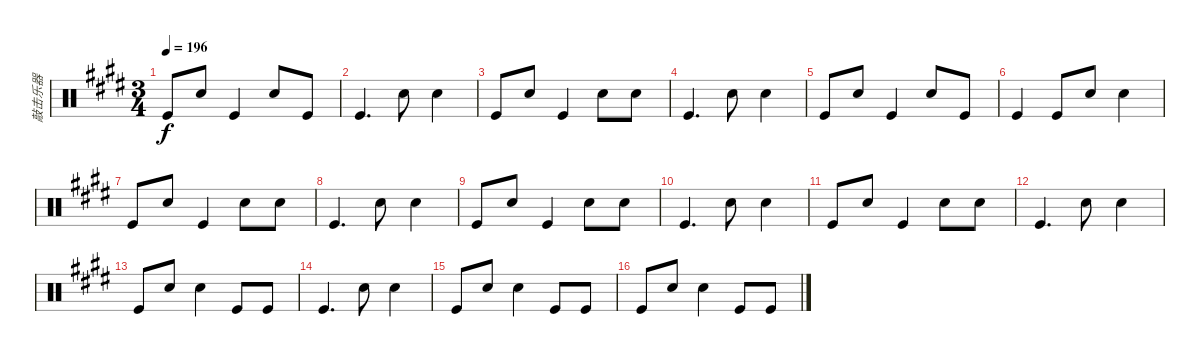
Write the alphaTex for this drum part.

\track ("敲击乐器" "敲击乐器") {instrument percussion}
\staff {score}
\articulation defaults
\ts (3 4)
\tempo 196
\clef neutral
\ks c#minor "Kick (hit)".8{dy f} "Snare (hit) 2".8 "Kick (hit)".4 "Snare (hit) 2".8 "Kick (hit)".8
|
\ks e "Kick (hit)".4{d} "Snare (hit) 2".8 "Snare (hit) 2".4
|
\ks c#minor "Kick (hit)".8 "Snare (hit) 2".8 "Kick (hit)".4 "Snare (hit) 2".8 "Snare (hit) 2".8
|
\ks e "Kick (hit)".4{d} "Snare (hit) 2".8 "Snare (hit) 2".4
|
\ks c#minor "Kick (hit)".8 "Snare (hit) 2".8 "Kick (hit)".4 "Snare (hit) 2".8 "Kick (hit)".8
|
\ks e "Kick (hit)".4 "Kick (hit)".8 "Snare (hit) 2".8 "Snare (hit) 2".4
|
\ks c#minor "Kick (hit)".8 "Snare (hit) 2".8 "Kick (hit)".4 "Snare (hit) 2".8 "Snare (hit) 2".8
|
\ks e "Kick (hit)".4{d} "Snare (hit) 2".8 "Snare (hit) 2".4
|
\ks c#minor "Kick (hit)".8 "Snare (hit) 2".8 "Kick (hit)".4 "Snare (hit) 2".8 "Snare (hit) 2".8
|
\ks e "Kick (hit)".4{d} "Snare (hit) 2".8 "Snare (hit) 2".4
|
\ks c#minor "Kick (hit)".8 "Snare (hit) 2".8 "Kick (hit)".4 "Snare (hit) 2".8 "Snare (hit) 2".8
|
\ks e "Kick (hit)".4{d} "Snare (hit) 2".8 "Snare (hit) 2".4
|
\ks c#minor "Kick (hit)".8 "Snare (hit) 2".8 "Snare (hit) 2".4 "Kick (hit)".8 "Kick (hit)".8
|
\ks e "Kick (hit)".4{d} "Snare (hit) 2".8 "Snare (hit) 2".4
|
\ks c#minor "Kick (hit)".8 "Snare (hit) 2".8 "Snare (hit) 2".4 "Kick (hit)".8 "Kick (hit)".8
|
\ks e "Kick (hit)".8 "Snare (hit) 2".8 "Snare (hit) 2".4 "Kick (hit)".8 "Kick (hit)".8
